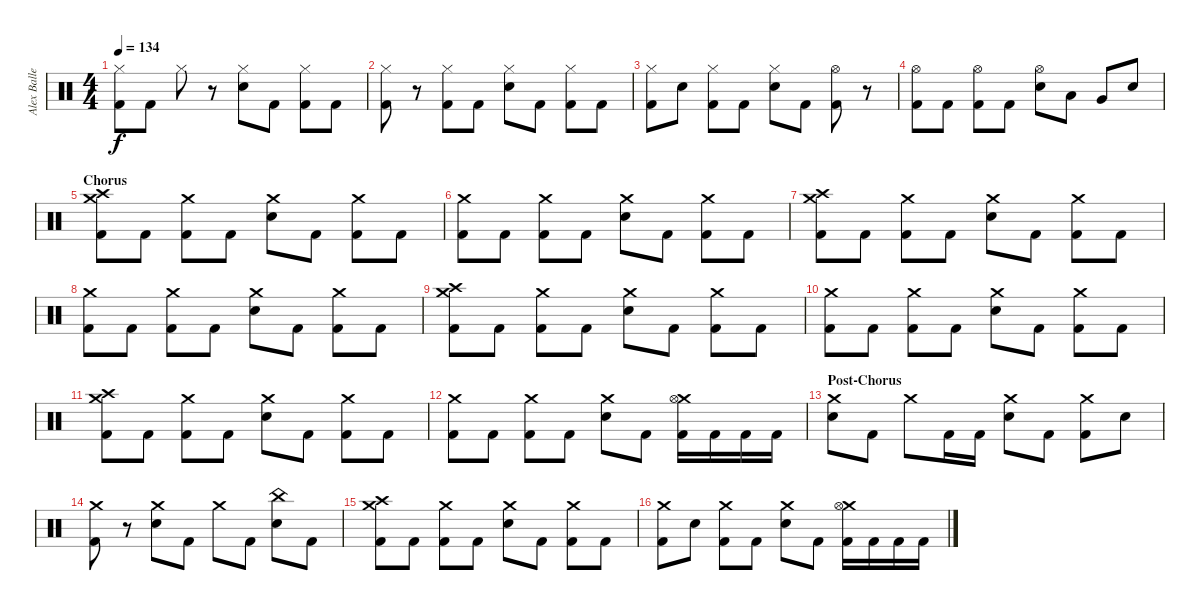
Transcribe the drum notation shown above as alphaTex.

\track ("Alex Ballew" "Alex Balle") {instrument percussion}
\staff {score}
\articulation defaults
\ts (4 4)
\tempo 134
\clef neutral
\ks c
("Hi-Hat (closed)" "Kick (hit) 2").8{dy f} "Kick (hit) 2".8 "Hi-Hat (closed)".8 r.8 ("Hi-Hat (closed)" "Electric Snare (hit)").8 "Kick (hit) 2".8 ("Hi-Hat (closed)" "Kick (hit) 2").8 "Kick (hit) 2".8 |
("Hi-Hat (closed)" "Kick (hit) 2").8 r.8 ("Hi-Hat (closed)" "Kick (hit) 2").8 "Kick (hit) 2".8 ("Hi-Hat (closed)" "Electric Snare (hit)").8 "Kick (hit) 2".8 ("Hi-Hat (closed)" "Kick (hit) 2").8 "Kick (hit) 2".8 |
("Hi-Hat (closed)" "Kick (hit) 2").8 "Electric Snare (hit)".8 ("Hi-Hat (closed)" "Kick (hit) 2").8 "Kick (hit) 2".8 ("Hi-Hat (closed)" "Electric Snare (hit)").8 "Kick (hit) 2".8 ("Hi-Hat (open)" "Kick (hit) 2").8 r.8 |
("Hi-Hat (open)" "Kick (hit) 2").8 "Kick (hit) 2".8 ("Hi-Hat (open)" "Kick (hit) 2").8 "Kick (hit) 2".8 ("Hi-Hat (open)" "Electric Snare (hit)").8 "Low Tom (hit)".8 "Very Low Tom (hit)".8 "Electric Snare (hit)".8 |
\section ("" "Chorus")
("Crash medium (hit)" "Crash high (hit)" "Kick (hit) 2").8 "Kick (hit) 2".8 ("Crash medium (hit)" "Kick (hit) 2").8 "Kick (hit) 2".8 ("Crash medium (hit)" "Electric Snare (hit)").8 "Kick (hit) 2".8 ("Crash medium (hit)" "Kick (hit) 2").8 "Kick (hit) 2".8 |
("Crash medium (hit)" "Kick (hit) 2").8 "Kick (hit) 2".8 ("Crash medium (hit)" "Kick (hit) 2").8 "Kick (hit) 2".8 ("Crash medium (hit)" "Electric Snare (hit)").8 "Kick (hit) 2".8 ("Crash medium (hit)" "Kick (hit) 2").8 "Kick (hit) 2".8 |
("Crash medium (hit)" "Crash high (hit)" "Kick (hit) 2").8 "Kick (hit) 2".8 ("Crash medium (hit)" "Kick (hit) 2").8 "Kick (hit) 2".8 ("Crash medium (hit)" "Electric Snare (hit)").8 "Kick (hit) 2".8 ("Crash medium (hit)" "Kick (hit) 2").8 "Kick (hit) 2".8 |
("Crash medium (hit)" "Kick (hit) 2").8 "Kick (hit) 2".8 ("Crash medium (hit)" "Kick (hit) 2").8 "Kick (hit) 2".8 ("Crash medium (hit)" "Electric Snare (hit)").8 "Kick (hit) 2".8 ("Crash medium (hit)" "Kick (hit) 2").8 "Kick (hit) 2".8 |
("Crash medium (hit)" "Crash high (hit)" "Kick (hit) 2").8 "Kick (hit) 2".8 ("Crash medium (hit)" "Kick (hit) 2").8 "Kick (hit) 2".8 ("Crash medium (hit)" "Electric Snare (hit)").8 "Kick (hit) 2".8 ("Crash medium (hit)" "Kick (hit) 2").8 "Kick (hit) 2".8 |
("Crash medium (hit)" "Kick (hit) 2").8 "Kick (hit) 2".8 ("Crash medium (hit)" "Kick (hit) 2").8 "Kick (hit) 2".8 ("Crash medium (hit)" "Electric Snare (hit)").8 "Kick (hit) 2".8 ("Crash medium (hit)" "Kick (hit) 2").8 "Kick (hit) 2".8 |
("Crash medium (hit)" "Crash high (hit)" "Kick (hit) 2").8 "Kick (hit) 2".8 ("Crash medium (hit)" "Kick (hit) 2").8 "Kick (hit) 2".8 ("Crash medium (hit)" "Electric Snare (hit)").8 "Kick (hit) 2".8 ("Crash medium (hit)" "Kick (hit) 2").8 "Kick (hit) 2".8 |
("Crash medium (hit)" "Kick (hit) 2").8 "Kick (hit) 2".8 ("Crash medium (hit)" "Kick (hit) 2").8 "Kick (hit) 2".8 ("Crash medium (hit)" "Electric Snare (hit)").8 "Kick (hit) 2".8 ("Crash medium (hit)" "Hi-Hat (open)" "Kick (hit) 2").16 "Kick (hit) 2".16 "Kick (hit) 2".16 "Kick (hit) 2".16 |
\section ("" "Post-Chorus")
("Crash medium (hit)" "Electric Snare (hit)").8 "Kick (hit) 2".8 "Crash medium (hit)".8 "Kick (hit) 2".16 "Kick (hit) 2".16 ("Crash medium (hit)" "Electric Snare (hit)").8 "Kick (hit) 2".8 ("Crash medium (hit)" "Kick (hit) 2").8 "Electric Snare (hit)".8 |
("Crash medium (hit)" "Kick (hit) 2").8 r.8 ("Crash medium (hit)" "Electric Snare (hit)").8 "Kick (hit) 2".8 "Crash medium (hit)".8 "Kick (hit) 2".8 ("China (hit)" "Electric Snare (hit)").8 "Kick (hit) 2".8 |
("Crash medium (hit)" "Crash high (hit)" "Kick (hit) 2").8 "Kick (hit) 2".8 ("Crash medium (hit)" "Kick (hit) 2").8 "Kick (hit) 2".8 ("Crash medium (hit)" "Electric Snare (hit)").8 "Kick (hit) 2".8 ("Crash medium (hit)" "Kick (hit) 2").8 "Kick (hit) 2".8 |
("Crash medium (hit)" "Kick (hit) 2").8 "Electric Snare (hit)".8 ("Crash medium (hit)" "Kick (hit) 2").8 "Kick (hit) 2".8 ("Crash medium (hit)" "Electric Snare (hit)").8 "Kick (hit) 2".8 ("Crash medium (hit)" "Hi-Hat (open)" "Kick (hit) 2").16 "Kick (hit) 2".16 "Kick (hit) 2".16 "Kick (hit) 2".16
